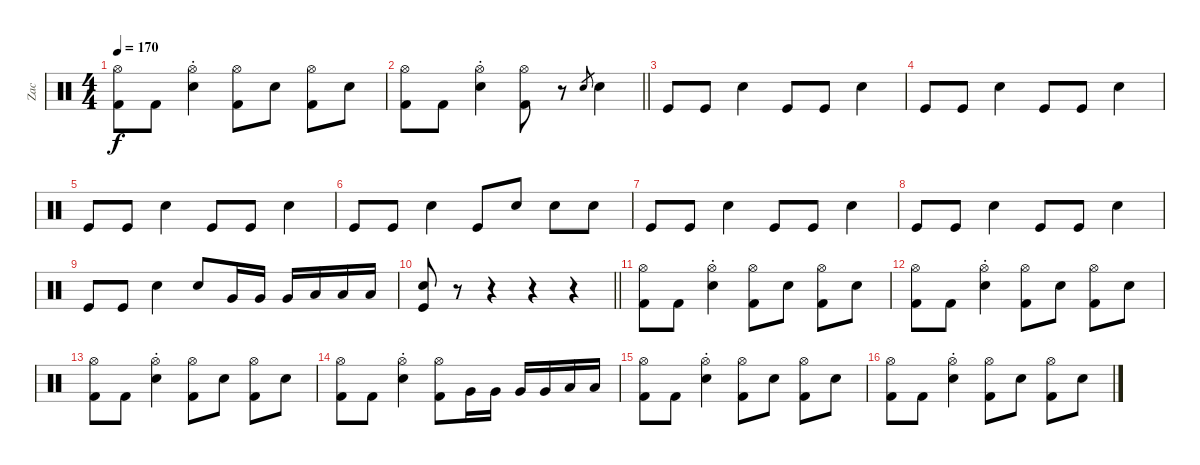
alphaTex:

\track ("Zac" "Zac") {instrument percussion}
\staff {score}
\articulation defaults
\ts (4 4)
\tempo 170
\clef neutral
\ks c
("Hi-Hat (open)" "Kick (hit) 2").8{dy f} "Kick (hit) 2".8 ("Hi-Hat (open)"{st} "Electric Snare (hit)").4 ("Hi-Hat (open)" "Kick (hit) 2").8 "Electric Snare (hit)".8 ("Hi-Hat (open)" "Kick (hit) 2").8 "Electric Snare (hit)".8 |
\barLineRight lightlight
("Hi-Hat (open)" "Kick (hit) 2").8 "Kick (hit) 2".8 ("Hi-Hat (open)"{st} "Electric Snare (hit)").4 ("Hi-Hat (open)" "Kick (hit) 2").8 r.8 "Electric Snare (hit)".8{gr} "Electric Snare (hit)".4 |
\section ("" "")
"Kick (hit)".8 "Kick (hit)".8 "Electric Snare (hit)".4 "Kick (hit)".8 "Kick (hit)".8 "Electric Snare (hit)".4 |
"Kick (hit)".8 "Kick (hit)".8 "Electric Snare (hit)".4 "Kick (hit)".8 "Kick (hit)".8 "Electric Snare (hit)".4 |
"Kick (hit)".8 "Kick (hit)".8 "Electric Snare (hit)".4 "Kick (hit)".8 "Kick (hit)".8 "Electric Snare (hit)".4 |
"Kick (hit)".8 "Kick (hit)".8 "Electric Snare (hit)".4 "Kick (hit)".8 "Electric Snare (hit)".8 "Electric Snare (hit)".8 "Electric Snare (hit)".8 |
"Kick (hit)".8 "Kick (hit)".8 "Electric Snare (hit)".4 "Kick (hit)".8 "Kick (hit)".8 "Electric Snare (hit)".4 |
"Kick (hit)".8 "Kick (hit)".8 "Electric Snare (hit)".4 "Kick (hit)".8 "Kick (hit)".8 "Electric Snare (hit)".4 |
"Kick (hit)".8 "Kick (hit)".8 "Electric Snare (hit)".4 "Electric Snare (hit)".8 "Very Low Tom (hit)".16 "Very Low Tom (hit)".16 "Very Low Tom (hit)".16 "Low Floor Tom (hit)".16 "Low Floor Tom (hit)".16 "Low Floor Tom (hit)".16 |
\barLineRight lightlight
("Electric Snare (hit)" "Kick (hit)").8 r.8 r.4 r.4 r.4 |
\section ("" "")
("Hi-Hat (open)" "Kick (hit) 2").8 "Kick (hit) 2".8 ("Hi-Hat (open)"{st} "Electric Snare (hit)").4 ("Hi-Hat (open)" "Kick (hit) 2").8 "Electric Snare (hit)".8 ("Hi-Hat (open)" "Kick (hit) 2").8 "Electric Snare (hit)".8 |
("Hi-Hat (open)" "Kick (hit) 2").8 "Kick (hit) 2".8 ("Hi-Hat (open)"{st} "Electric Snare (hit)").4 ("Hi-Hat (open)" "Kick (hit) 2").8 "Electric Snare (hit)".8 ("Hi-Hat (open)" "Kick (hit) 2").8 "Electric Snare (hit)".8 |
("Hi-Hat (open)" "Kick (hit) 2").8 "Kick (hit) 2".8 ("Hi-Hat (open)"{st} "Electric Snare (hit)").4 ("Hi-Hat (open)" "Kick (hit) 2").8 "Electric Snare (hit)".8 ("Hi-Hat (open)" "Kick (hit) 2").8 "Electric Snare (hit)".8 |
("Hi-Hat (open)" "Kick (hit) 2").8 "Kick (hit) 2".8 ("Hi-Hat (open)"{st} "Electric Snare (hit)").4 ("Hi-Hat (open)" "Kick (hit) 2").8 "Very Low Tom (hit)".16 "Very Low Tom (hit)".16 "Very Low Tom (hit)".16 "Very Low Tom (hit)".16 "Low Floor Tom (hit)".16 "Low Floor Tom (hit)".16 |
("Hi-Hat (open)" "Kick (hit) 2").8 "Kick (hit) 2".8 ("Hi-Hat (open)"{st} "Electric Snare (hit)").4 ("Hi-Hat (open)" "Kick (hit) 2").8 "Electric Snare (hit)".8 ("Hi-Hat (open)" "Kick (hit) 2").8 "Electric Snare (hit)".8 |
("Hi-Hat (open)" "Kick (hit) 2").8 "Kick (hit) 2".8 ("Hi-Hat (open)"{st} "Electric Snare (hit)").4 ("Hi-Hat (open)" "Kick (hit) 2").8 "Electric Snare (hit)".8 ("Hi-Hat (open)" "Kick (hit) 2").8 "Electric Snare (hit)".8
